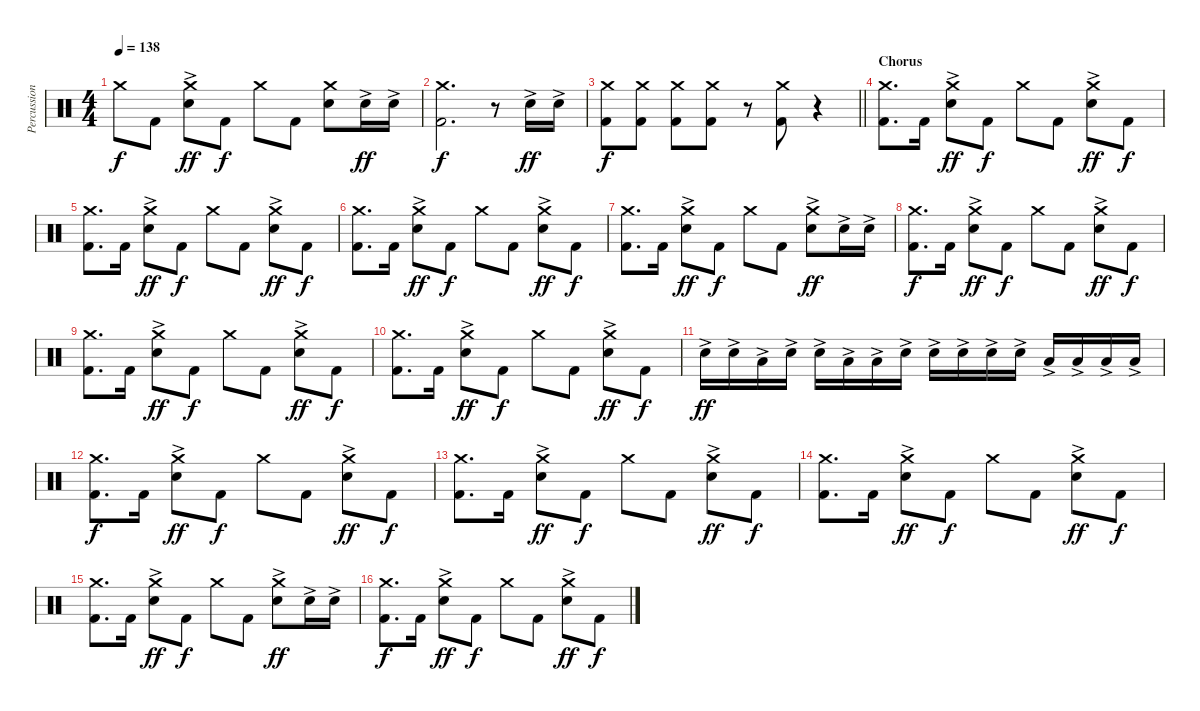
\track ("Percussion" "Percussion") {instrument percussion}
\staff {score}
\articulation defaults
\ts (4 4)
\tempo 138
\clef neutral
\ks c "Crash medium (hit)".8{dy f} "Kick (hit) 2".8
("Crash medium (hit)" "Electric Snare (hit)"{ac}).8{dy ff} "Kick (hit) 2".8{dy f} "Crash medium (hit)".8 "Kick (hit) 2".8 ("Crash medium (hit)" "Electric Snare (hit)").8 "Electric Snare (hit)"{ac}.16{dy ff} "Electric Snare (hit)"{ac}.16 |
("Crash medium (hit)" "Kick (hit) 2").2{d dy f} r.8 "Electric Snare (hit)"{ac}.16{dy ff} "Electric Snare (hit)"{ac}.16 |
\barLineRight lightlight
("Crash medium (hit)" "Kick (hit) 2").8{dy f} ("Crash medium (hit)" "Kick (hit) 2").8 ("Crash medium (hit)" "Kick (hit) 2").8 ("Crash medium (hit)" "Kick (hit) 2").8 r.8 ("Crash medium (hit)" "Kick (hit) 2").8 r.4 |
\section ("" "Chorus")
("Crash medium (hit)" "Kick (hit) 2").8{d} "Kick (hit) 2".16 ("Crash medium (hit)" "Electric Snare (hit)"{ac}).8{dy ff} "Kick (hit) 2".8{dy f} "Crash medium (hit)".8 "Kick (hit) 2".8 ("Crash medium (hit)" "Electric Snare (hit)"{ac}).8{dy ff} "Kick (hit) 2".8{dy f} |
("Crash medium (hit)" "Kick (hit) 2").8{d} "Kick (hit) 2".16 ("Crash medium (hit)" "Electric Snare (hit)"{ac}).8{dy ff} "Kick (hit) 2".8{dy f} "Crash medium (hit)".8 "Kick (hit) 2".8 ("Crash medium (hit)" "Electric Snare (hit)"{ac}).8{dy ff} "Kick (hit) 2".8{dy f} |
("Crash medium (hit)" "Kick (hit) 2").8{d} "Kick (hit) 2".16 ("Crash medium (hit)" "Electric Snare (hit)"{ac}).8{dy ff} "Kick (hit) 2".8{dy f} "Crash medium (hit)".8 "Kick (hit) 2".8 ("Crash medium (hit)" "Electric Snare (hit)"{ac}).8{dy ff} "Kick (hit) 2".8{dy f} |
("Crash medium (hit)" "Kick (hit) 2").8{d} "Kick (hit) 2".16 ("Crash medium (hit)" "Electric Snare (hit)"{ac}).8{dy ff} "Kick (hit) 2".8{dy f} "Crash medium (hit)".8 "Kick (hit) 2".8 ("Crash medium (hit)" "Electric Snare (hit)"{ac}).8{dy ff} "Electric Snare (hit)"{ac}.16 "Electric Snare (hit)"{ac}.16 |
("Crash medium (hit)" "Kick (hit) 2").8{d dy f} "Kick (hit) 2".16 ("Crash medium (hit)" "Electric Snare (hit)"{ac}).8{dy ff} "Kick (hit) 2".8{dy f} "Crash medium (hit)".8 "Kick (hit) 2".8 ("Crash medium (hit)" "Electric Snare (hit)"{ac}).8{dy ff} "Kick (hit) 2".8{dy f} |
("Crash medium (hit)" "Kick (hit) 2").8{d} "Kick (hit) 2".16 ("Crash medium (hit)" "Electric Snare (hit)"{ac}).8{dy ff} "Kick (hit) 2".8{dy f} "Crash medium (hit)".8 "Kick (hit) 2".8 ("Crash medium (hit)" "Electric Snare (hit)"{ac}).8{dy ff} "Kick (hit) 2".8{dy f} |
("Crash medium (hit)" "Kick (hit) 2").8{d} "Kick (hit) 2".16 ("Crash medium (hit)" "Electric Snare (hit)"{ac}).8{dy ff} "Kick (hit) 2".8{dy f} "Crash medium (hit)".8 "Kick (hit) 2".8 ("Crash medium (hit)" "Electric Snare (hit)"{ac}).8{dy ff} "Kick (hit) 2".8{dy f} |
"Electric Snare (hit)"{ac}.16{dy ff} "Electric Snare (hit)"{ac}.16 "Low Tom (hit)"{ac}.16 "Electric Snare (hit)"{ac}.16 "Electric Snare (hit)"{ac}.16 "Low Tom (hit)"{ac}.16 "Low Tom (hit)"{ac}.16 "Electric Snare (hit)"{ac}.16 "Electric Snare (hit)"{ac}.16 "Electric Snare (hit)"{ac}.16 "Electric Snare (hit)"{ac}.16 "Electric Snare (hit)"{ac}.16 "Low Tom (hit)"{ac}.16 "Low Tom (hit)"{ac}.16 "Low Tom (hit)"{ac}.16 "Low Tom (hit)"{ac}.16 |
("Crash medium (hit)" "Kick (hit) 2").8{d dy f} "Kick (hit) 2".16 ("Crash medium (hit)" "Electric Snare (hit)"{ac}).8{dy ff} "Kick (hit) 2".8{dy f} "Crash medium (hit)".8 "Kick (hit) 2".8 ("Crash medium (hit)" "Electric Snare (hit)"{ac}).8{dy ff} "Kick (hit) 2".8{dy f} |
("Crash medium (hit)" "Kick (hit) 2").8{d} "Kick (hit) 2".16 ("Crash medium (hit)" "Electric Snare (hit)"{ac}).8{dy ff} "Kick (hit) 2".8{dy f} "Crash medium (hit)".8 "Kick (hit) 2".8 ("Crash medium (hit)" "Electric Snare (hit)"{ac}).8{dy ff} "Kick (hit) 2".8{dy f} |
("Crash medium (hit)" "Kick (hit) 2").8{d} "Kick (hit) 2".16 ("Crash medium (hit)" "Electric Snare (hit)"{ac}).8{dy ff} "Kick (hit) 2".8{dy f} "Crash medium (hit)".8 "Kick (hit) 2".8 ("Crash medium (hit)" "Electric Snare (hit)"{ac}).8{dy ff} "Kick (hit) 2".8{dy f} |
("Crash medium (hit)" "Kick (hit) 2").8{d} "Kick (hit) 2".16 ("Crash medium (hit)" "Electric Snare (hit)"{ac}).8{dy ff} "Kick (hit) 2".8{dy f} "Crash medium (hit)".8 "Kick (hit) 2".8 ("Crash medium (hit)" "Electric Snare (hit)"{ac}).8{dy ff} "Electric Snare (hit)"{ac}.16 "Electric Snare (hit)"{ac}.16 |
("Crash medium (hit)" "Kick (hit) 2").8{d dy f} "Kick (hit) 2".16 ("Crash medium (hit)" "Electric Snare (hit)"{ac}).8{dy ff} "Kick (hit) 2".8{dy f} "Crash medium (hit)".8 "Kick (hit) 2".8 ("Crash medium (hit)" "Electric Snare (hit)"{ac}).8{dy ff} "Kick (hit) 2".8{dy f}
